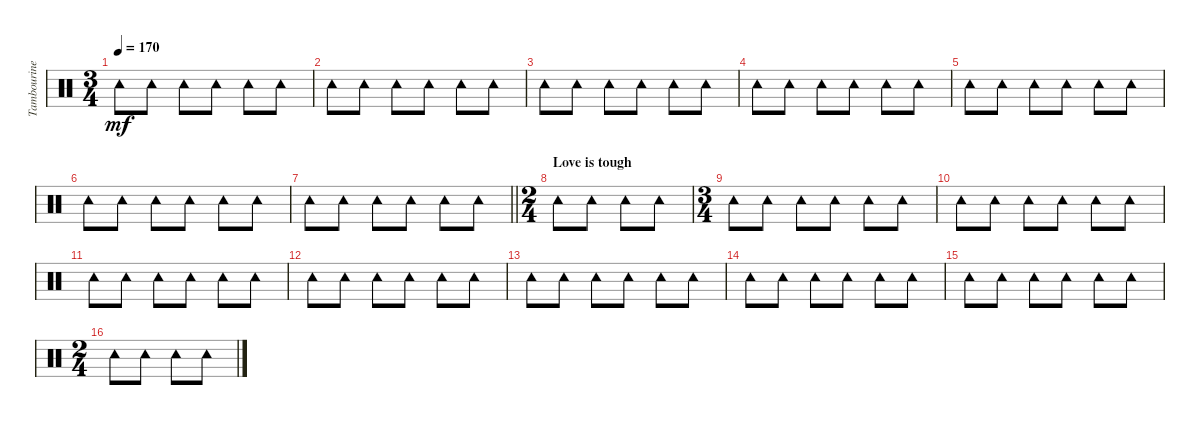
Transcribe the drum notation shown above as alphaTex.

\track ("Tambourine" "Tambourine") {instrument percussion}
\staff {score}
\articulation defaults
\ts (3 4)
\tempo 170
\clef neutral
\ks c "Tambourine (hit)".8{dy mf} "Tambourine (hit)".8 "Tambourine (hit)".8 "Tambourine (hit)".8 "Tambourine (hit)".8 "Tambourine (hit)".8
|
"Tambourine (hit)".8 "Tambourine (hit)".8 "Tambourine (hit)".8 "Tambourine (hit)".8 "Tambourine (hit)".8 "Tambourine (hit)".8 |
"Tambourine (hit)".8 "Tambourine (hit)".8 "Tambourine (hit)".8 "Tambourine (hit)".8 "Tambourine (hit)".8 "Tambourine (hit)".8 |
"Tambourine (hit)".8 "Tambourine (hit)".8 "Tambourine (hit)".8 "Tambourine (hit)".8 "Tambourine (hit)".8 "Tambourine (hit)".8 |
"Tambourine (hit)".8 "Tambourine (hit)".8 "Tambourine (hit)".8 "Tambourine (hit)".8 "Tambourine (hit)".8 "Tambourine (hit)".8 |
"Tambourine (hit)".8 "Tambourine (hit)".8 "Tambourine (hit)".8 "Tambourine (hit)".8 "Tambourine (hit)".8 "Tambourine (hit)".8 |
\barLineRight lightlight "Tambourine (hit)".8 "Tambourine (hit)".8 "Tambourine (hit)".8 "Tambourine (hit)".8 "Tambourine (hit)".8 "Tambourine (hit)".8
|
\ts (2 4)
\section ("" "Love is tough")
"Tambourine (hit)".8 "Tambourine (hit)".8 "Tambourine (hit)".8 "Tambourine (hit)".8 |
\ts (3 4)
"Tambourine (hit)".8 "Tambourine (hit)".8 "Tambourine (hit)".8 "Tambourine (hit)".8 "Tambourine (hit)".8 "Tambourine (hit)".8 |
"Tambourine (hit)".8 "Tambourine (hit)".8 "Tambourine (hit)".8 "Tambourine (hit)".8 "Tambourine (hit)".8 "Tambourine (hit)".8 |
"Tambourine (hit)".8 "Tambourine (hit)".8 "Tambourine (hit)".8 "Tambourine (hit)".8 "Tambourine (hit)".8 "Tambourine (hit)".8 |
"Tambourine (hit)".8 "Tambourine (hit)".8 "Tambourine (hit)".8 "Tambourine (hit)".8 "Tambourine (hit)".8 "Tambourine (hit)".8 |
"Tambourine (hit)".8 "Tambourine (hit)".8 "Tambourine (hit)".8 "Tambourine (hit)".8 "Tambourine (hit)".8 "Tambourine (hit)".8 |
"Tambourine (hit)".8 "Tambourine (hit)".8 "Tambourine (hit)".8 "Tambourine (hit)".8 "Tambourine (hit)".8 "Tambourine (hit)".8 |
"Tambourine (hit)".8 "Tambourine (hit)".8 "Tambourine (hit)".8 "Tambourine (hit)".8 "Tambourine (hit)".8 "Tambourine (hit)".8 |
\ts (2 4)
"Tambourine (hit)".8 "Tambourine (hit)".8 "Tambourine (hit)".8 "Tambourine (hit)".8
